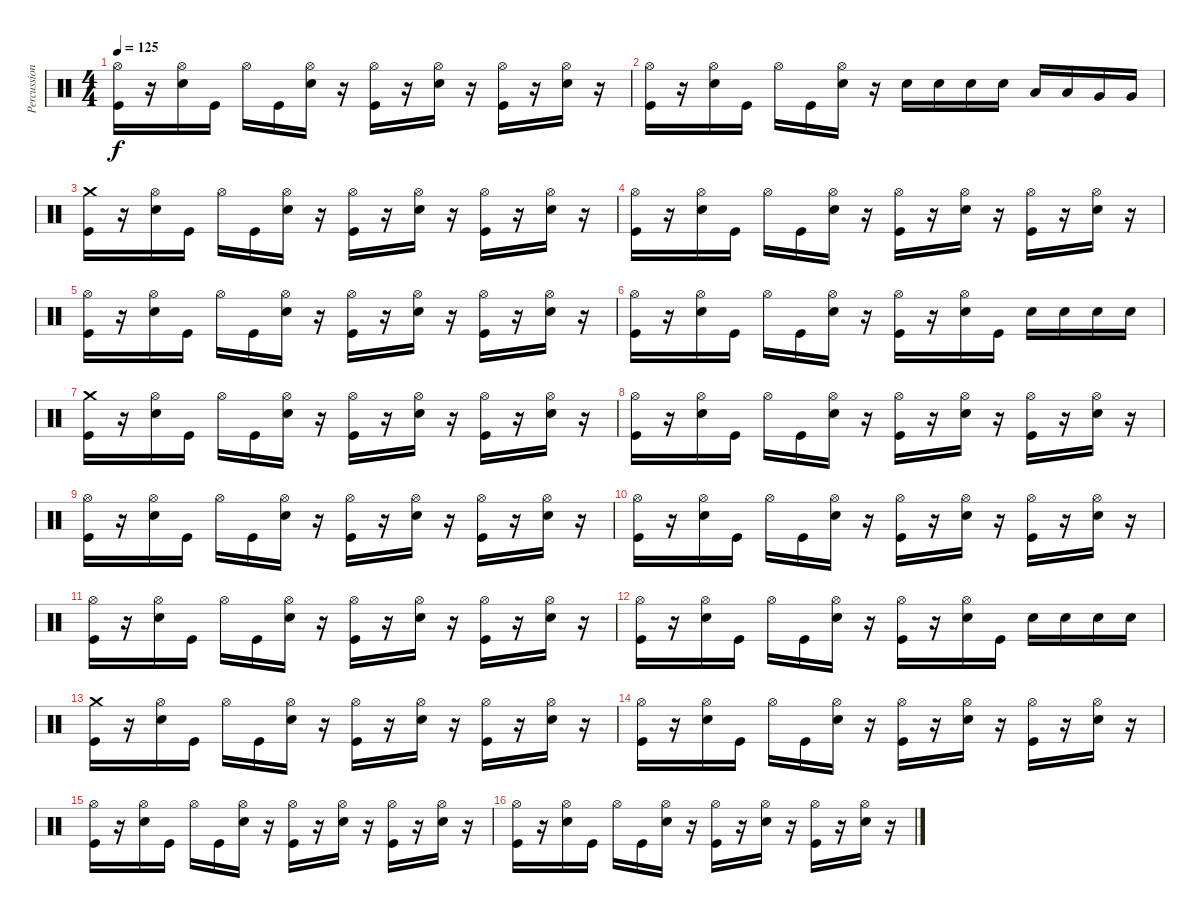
\track ("Percussion" "Percussion") {instrument percussion}
\staff {score}
\articulation defaults
\ts (4 4)
\tempo 125
\clef neutral
\ks c
("Hi-Hat (open)" "Kick (hit)").16{dy f} r.16 ("Hi-Hat (open)" "Snare (hit) 2").16 "Kick (hit)".16 "Hi-Hat (open)".16 "Kick (hit)".16 ("Hi-Hat (open)" "Snare (hit) 2").16 r.16 ("Hi-Hat (open)" "Kick (hit)").16 r.16 ("Hi-Hat (open)" "Snare (hit) 2").16 r.16 ("Hi-Hat (open)" "Kick (hit)").16 r.16 ("Hi-Hat (open)" "Snare (hit) 2").16 r.16 |
("Hi-Hat (open)" "Kick (hit)").16 r.16 ("Hi-Hat (open)" "Snare (hit) 2").16 "Kick (hit)".16 "Hi-Hat (open)".16 "Kick (hit)".16 ("Hi-Hat (open)" "Snare (hit) 2").16 r.16 "Snare (hit) 2".16 "Snare (hit) 2".16 "Snare (hit) 2".16 "Snare (hit) 2".16 "Low Tom (hit)".16 "Low Tom (hit)".16 "Very Low Tom (hit)".16 "Very Low Tom (hit)".16 |
("Crash medium (hit)" "Kick (hit)").16 r.16 ("Hi-Hat (open)" "Snare (hit) 2").16 "Kick (hit)".16 "Hi-Hat (open)".16 "Kick (hit)".16 ("Hi-Hat (open)" "Snare (hit) 2").16 r.16 ("Hi-Hat (open)" "Kick (hit)").16 r.16 ("Hi-Hat (open)" "Snare (hit) 2").16 r.16 ("Hi-Hat (open)" "Kick (hit)").16 r.16 ("Hi-Hat (open)" "Snare (hit) 2").16 r.16 |
("Hi-Hat (open)" "Kick (hit)").16 r.16 ("Hi-Hat (open)" "Snare (hit) 2").16 "Kick (hit)".16 "Hi-Hat (open)".16 "Kick (hit)".16 ("Hi-Hat (open)" "Snare (hit) 2").16 r.16 ("Hi-Hat (open)" "Kick (hit)").16 r.16 ("Hi-Hat (open)" "Snare (hit) 2").16 r.16 ("Hi-Hat (open)" "Kick (hit)").16 r.16 ("Hi-Hat (open)" "Snare (hit) 2").16 r.16 |
("Hi-Hat (open)" "Kick (hit)").16 r.16 ("Hi-Hat (open)" "Snare (hit) 2").16 "Kick (hit)".16 "Hi-Hat (open)".16 "Kick (hit)".16 ("Hi-Hat (open)" "Snare (hit) 2").16 r.16 ("Hi-Hat (open)" "Kick (hit)").16 r.16 ("Hi-Hat (open)" "Snare (hit) 2").16 r.16 ("Hi-Hat (open)" "Kick (hit)").16 r.16 ("Hi-Hat (open)" "Snare (hit) 2").16 r.16 |
("Hi-Hat (open)" "Kick (hit)").16 r.16 ("Hi-Hat (open)" "Snare (hit) 2").16 "Kick (hit)".16 "Hi-Hat (open)".16 "Kick (hit)".16 ("Hi-Hat (open)" "Snare (hit) 2").16 r.16 ("Hi-Hat (open)" "Kick (hit)").16 r.16 ("Hi-Hat (open)" "Snare (hit) 2").16 "Kick (hit)".16 "Snare (hit) 2".16 "Snare (hit) 2".16 "Snare (hit) 2".16 "Snare (hit) 2".16 |
("Crash medium (hit)" "Kick (hit)").16 r.16 ("Hi-Hat (open)" "Snare (hit) 2").16 "Kick (hit)".16 "Hi-Hat (open)".16 "Kick (hit)".16 ("Hi-Hat (open)" "Snare (hit) 2").16 r.16 ("Hi-Hat (open)" "Kick (hit)").16 r.16 ("Hi-Hat (open)" "Snare (hit) 2").16 r.16 ("Hi-Hat (open)" "Kick (hit)").16 r.16 ("Hi-Hat (open)" "Snare (hit) 2").16 r.16 |
("Hi-Hat (open)" "Kick (hit)").16 r.16 ("Hi-Hat (open)" "Snare (hit) 2").16 "Kick (hit)".16 "Hi-Hat (open)".16 "Kick (hit)".16 ("Hi-Hat (open)" "Snare (hit) 2").16 r.16 ("Hi-Hat (open)" "Kick (hit)").16 r.16 ("Hi-Hat (open)" "Snare (hit) 2").16 r.16 ("Hi-Hat (open)" "Kick (hit)").16 r.16 ("Hi-Hat (open)" "Snare (hit) 2").16 r.16 |
("Hi-Hat (open)" "Kick (hit)").16 r.16 ("Hi-Hat (open)" "Snare (hit) 2").16 "Kick (hit)".16 "Hi-Hat (open)".16 "Kick (hit)".16 ("Hi-Hat (open)" "Snare (hit) 2").16 r.16 ("Hi-Hat (open)" "Kick (hit)").16 r.16 ("Hi-Hat (open)" "Snare (hit) 2").16 r.16 ("Hi-Hat (open)" "Kick (hit)").16 r.16 ("Hi-Hat (open)" "Snare (hit) 2").16 r.16 |
("Hi-Hat (open)" "Kick (hit)").16 r.16 ("Hi-Hat (open)" "Snare (hit) 2").16 "Kick (hit)".16 "Hi-Hat (open)".16 "Kick (hit)".16 ("Hi-Hat (open)" "Snare (hit) 2").16 r.16 ("Hi-Hat (open)" "Kick (hit)").16 r.16 ("Hi-Hat (open)" "Snare (hit) 2").16 r.16 ("Hi-Hat (open)" "Kick (hit)").16 r.16 ("Hi-Hat (open)" "Snare (hit) 2").16 r.16 |
("Hi-Hat (open)" "Kick (hit)").16 r.16 ("Hi-Hat (open)" "Snare (hit) 2").16 "Kick (hit)".16 "Hi-Hat (open)".16 "Kick (hit)".16 ("Hi-Hat (open)" "Snare (hit) 2").16 r.16 ("Hi-Hat (open)" "Kick (hit)").16 r.16 ("Hi-Hat (open)" "Snare (hit) 2").16 r.16 ("Hi-Hat (open)" "Kick (hit)").16 r.16 ("Hi-Hat (open)" "Snare (hit) 2").16 r.16 |
("Hi-Hat (open)" "Kick (hit)").16 r.16 ("Hi-Hat (open)" "Snare (hit) 2").16 "Kick (hit)".16 "Hi-Hat (open)".16 "Kick (hit)".16 ("Hi-Hat (open)" "Snare (hit) 2").16 r.16 ("Hi-Hat (open)" "Kick (hit)").16 r.16 ("Hi-Hat (open)" "Snare (hit) 2").16 "Kick (hit)".16 "Snare (hit) 2".16 "Snare (hit) 2".16 "Snare (hit) 2".16 "Snare (hit) 2".16 |
("Crash medium (hit)" "Kick (hit)").16 r.16 ("Hi-Hat (open)" "Snare (hit) 2").16 "Kick (hit)".16 "Hi-Hat (open)".16 "Kick (hit)".16 ("Hi-Hat (open)" "Snare (hit) 2").16 r.16 ("Hi-Hat (open)" "Kick (hit)").16 r.16 ("Hi-Hat (open)" "Snare (hit) 2").16 r.16 ("Hi-Hat (open)" "Kick (hit)").16 r.16 ("Hi-Hat (open)" "Snare (hit) 2").16 r.16 |
("Hi-Hat (open)" "Kick (hit)").16 r.16 ("Hi-Hat (open)" "Snare (hit) 2").16 "Kick (hit)".16 "Hi-Hat (open)".16 "Kick (hit)".16 ("Hi-Hat (open)" "Snare (hit) 2").16 r.16 ("Hi-Hat (open)" "Kick (hit)").16 r.16 ("Hi-Hat (open)" "Snare (hit) 2").16 r.16 ("Hi-Hat (open)" "Kick (hit)").16 r.16 ("Hi-Hat (open)" "Snare (hit) 2").16 r.16 |
("Hi-Hat (open)" "Kick (hit)").16 r.16 ("Hi-Hat (open)" "Snare (hit) 2").16 "Kick (hit)".16 "Hi-Hat (open)".16 "Kick (hit)".16 ("Hi-Hat (open)" "Snare (hit) 2").16 r.16 ("Hi-Hat (open)" "Kick (hit)").16 r.16 ("Hi-Hat (open)" "Snare (hit) 2").16 r.16 ("Hi-Hat (open)" "Kick (hit)").16 r.16 ("Hi-Hat (open)" "Snare (hit) 2").16 r.16 |
("Hi-Hat (open)" "Kick (hit)").16 r.16 ("Hi-Hat (open)" "Snare (hit) 2").16 "Kick (hit)".16 "Hi-Hat (open)".16 "Kick (hit)".16 ("Hi-Hat (open)" "Snare (hit) 2").16 r.16 ("Hi-Hat (open)" "Kick (hit)").16 r.16 ("Hi-Hat (open)" "Snare (hit) 2").16 r.16 ("Hi-Hat (open)" "Kick (hit)").16 r.16 ("Hi-Hat (open)" "Snare (hit) 2").16 r.16
